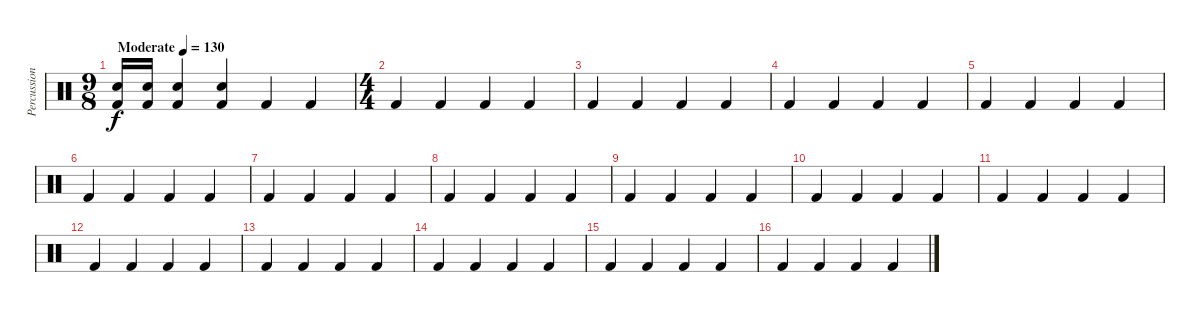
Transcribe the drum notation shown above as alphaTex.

\track ("Percussion" "Percussion") {instrument percussion}
\staff {score}
\articulation defaults
\ts (9 8)
\tempo (130 "Moderate")
\clef neutral
\ks c
("Electric Snare (hit)" "Kick (hit) 2").16{dy f} ("Electric Snare (hit)" "Kick (hit) 2").16 ("Electric Snare (hit)" "Kick (hit) 2").4 ("Electric Snare (hit)" "Kick (hit) 2").4 "Kick (hit) 2".4 "Kick (hit) 2".4 |
\ts (4 4)
"Kick (hit) 2".4 "Kick (hit) 2".4 "Kick (hit) 2".4 "Kick (hit) 2".4 |
"Kick (hit) 2".4 "Kick (hit) 2".4 "Kick (hit) 2".4 "Kick (hit) 2".4 |
"Kick (hit) 2".4 "Kick (hit) 2".4 "Kick (hit) 2".4 "Kick (hit) 2".4 |
"Kick (hit) 2".4 "Kick (hit) 2".4 "Kick (hit) 2".4 "Kick (hit) 2".4 |
"Kick (hit) 2".4 "Kick (hit) 2".4 "Kick (hit) 2".4 "Kick (hit) 2".4 |
"Kick (hit) 2".4 "Kick (hit) 2".4 "Kick (hit) 2".4 "Kick (hit) 2".4 |
"Kick (hit) 2".4 "Kick (hit) 2".4 "Kick (hit) 2".4 "Kick (hit) 2".4 |
"Kick (hit) 2".4 "Kick (hit) 2".4 "Kick (hit) 2".4 "Kick (hit) 2".4 |
"Kick (hit) 2".4 "Kick (hit) 2".4 "Kick (hit) 2".4 "Kick (hit) 2".4 |
"Kick (hit) 2".4 "Kick (hit) 2".4 "Kick (hit) 2".4 "Kick (hit) 2".4 |
"Kick (hit) 2".4 "Kick (hit) 2".4 "Kick (hit) 2".4 "Kick (hit) 2".4 |
"Kick (hit) 2".4 "Kick (hit) 2".4 "Kick (hit) 2".4 "Kick (hit) 2".4 |
"Kick (hit) 2".4 "Kick (hit) 2".4 "Kick (hit) 2".4 "Kick (hit) 2".4 |
"Kick (hit) 2".4 "Kick (hit) 2".4 "Kick (hit) 2".4 "Kick (hit) 2".4 |
"Kick (hit) 2".4 "Kick (hit) 2".4 "Kick (hit) 2".4 "Kick (hit) 2".4
